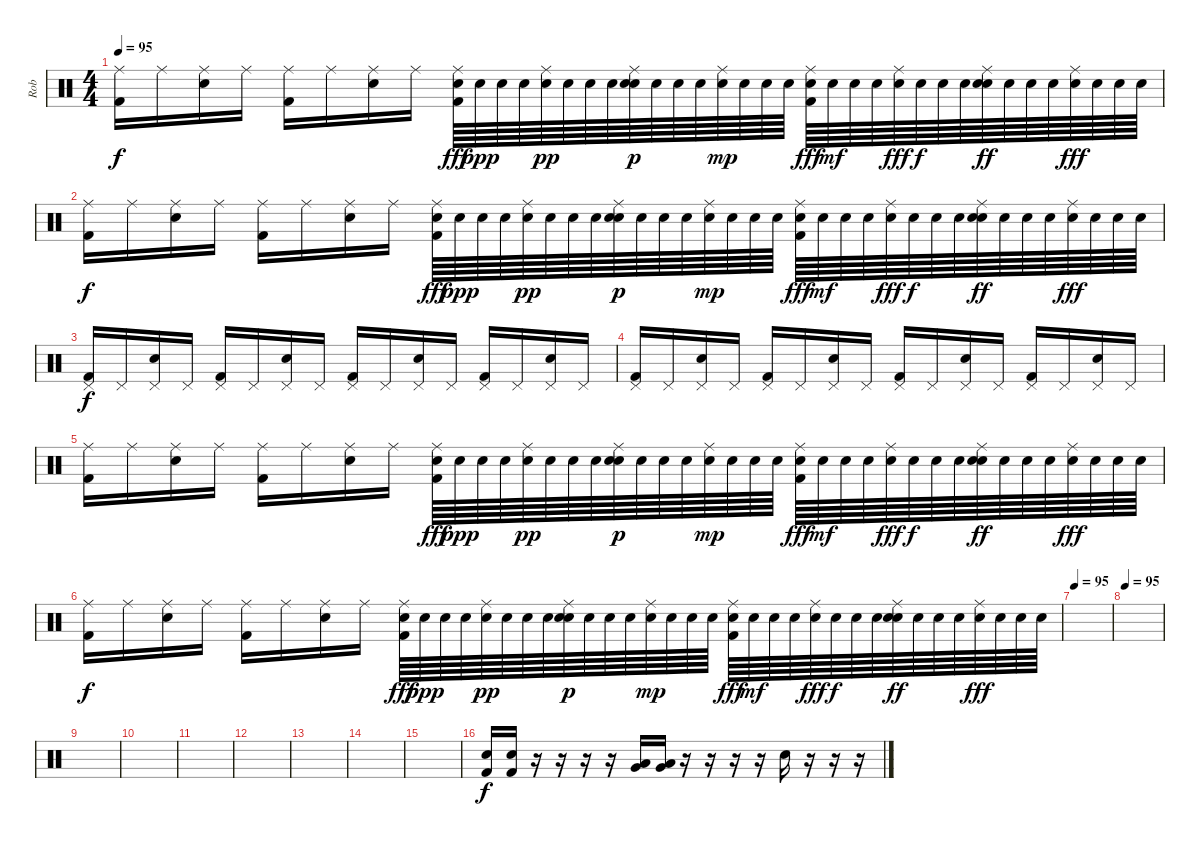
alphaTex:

\track ("Rob" "Rob") {instrument percussion}
\staff {score}
\articulation defaults
\ts (4 4)
\tempo 95
\clef neutral
\ks c
("Ride (middle)" "Kick (hit) 2").16{dy f} "Ride (middle)".16 ("Ride (middle)" "Electric Snare (hit)").16 "Ride (middle)".16 ("Ride (middle)" "Kick (hit) 2").16 "Ride (middle)".16 ("Ride (middle)" "Electric Snare (hit)").16 "Ride (middle)".16 ("Ride (middle)" "Electric Snare (hit)" "Kick (hit) 2").64{dy fff} "Electric Snare (hit)".64{dy ppp} "Electric Snare (hit)".64 "Electric Snare (hit)".64 ("Ride (middle)" "Electric Snare (hit)").64{dy pp} "Electric Snare (hit)".64 "Electric Snare (hit)".64 "Electric Snare (hit)".64 ("Ride (middle)" "Electric Snare (hit)" "Electric Snare (hit)").64{dy p} "Electric Snare (hit)".64 "Electric Snare (hit)".64 "Electric Snare (hit)".64 ("Ride (middle)" "Electric Snare (hit)").64{dy mp} "Electric Snare (hit)".64 "Electric Snare (hit)".64 "Electric Snare (hit)".64 ("Ride (middle)" "Electric Snare (hit)" "Kick (hit) 2").64{dy fff} "Electric Snare (hit)".64{dy mf} "Electric Snare (hit)".64 "Electric Snare (hit)".64 ("Ride (middle)" "Electric Snare (hit)").64{dy fff} "Electric Snare (hit)".64{dy f} "Electric Snare (hit)".64 "Electric Snare (hit)".64 ("Ride (middle)" "Electric Snare (hit)" "Electric Snare (hit)").64{dy ff} "Electric Snare (hit)".64 "Electric Snare (hit)".64 "Electric Snare (hit)".64 ("Ride (middle)" "Electric Snare (hit)").64{dy fff} "Electric Snare (hit)".64 "Electric Snare (hit)".64 "Electric Snare (hit)".64 |
("Ride (middle)" "Kick (hit) 2").16{dy f} "Ride (middle)".16 ("Ride (middle)" "Electric Snare (hit)").16 "Ride (middle)".16 ("Ride (middle)" "Kick (hit) 2").16 "Ride (middle)".16 ("Ride (middle)" "Electric Snare (hit)").16 "Ride (middle)".16 ("Ride (middle)" "Electric Snare (hit)" "Kick (hit) 2").64{dy fff} "Electric Snare (hit)".64{dy ppp} "Electric Snare (hit)".64 "Electric Snare (hit)".64 ("Ride (middle)" "Electric Snare (hit)").64{dy pp} "Electric Snare (hit)".64 "Electric Snare (hit)".64 "Electric Snare (hit)".64 ("Ride (middle)" "Electric Snare (hit)" "Electric Snare (hit)").64{dy p} "Electric Snare (hit)".64 "Electric Snare (hit)".64 "Electric Snare (hit)".64 ("Ride (middle)" "Electric Snare (hit)").64{dy mp} "Electric Snare (hit)".64 "Electric Snare (hit)".64 "Electric Snare (hit)".64 ("Ride (middle)" "Electric Snare (hit)" "Kick (hit) 2").64{dy fff} "Electric Snare (hit)".64{dy mf} "Electric Snare (hit)".64 "Electric Snare (hit)".64 ("Ride (middle)" "Electric Snare (hit)").64{dy fff} "Electric Snare (hit)".64{dy f} "Electric Snare (hit)".64 "Electric Snare (hit)".64 ("Ride (middle)" "Electric Snare (hit)" "Electric Snare (hit)").64{dy ff} "Electric Snare (hit)".64 "Electric Snare (hit)".64 "Electric Snare (hit)".64 ("Ride (middle)" "Electric Snare (hit)").64{dy fff} "Electric Snare (hit)".64 "Electric Snare (hit)".64 "Electric Snare (hit)".64 |
("Pedal Hi-Hat (hit)" "Kick (hit) 2").16{dy f} "Pedal Hi-Hat (hit)".16 ("Pedal Hi-Hat (hit)" "Electric Snare (hit)").16 "Pedal Hi-Hat (hit)".16 ("Pedal Hi-Hat (hit)" "Kick (hit) 2").16 "Pedal Hi-Hat (hit)".16 ("Pedal Hi-Hat (hit)" "Electric Snare (hit)").16 "Pedal Hi-Hat (hit)".16 ("Pedal Hi-Hat (hit)" "Kick (hit) 2").16 "Pedal Hi-Hat (hit)".16 ("Pedal Hi-Hat (hit)" "Electric Snare (hit)").16 "Pedal Hi-Hat (hit)".16 ("Pedal Hi-Hat (hit)" "Kick (hit) 2").16 "Pedal Hi-Hat (hit)".16 ("Pedal Hi-Hat (hit)" "Electric Snare (hit)").16 "Pedal Hi-Hat (hit)".16 |
("Pedal Hi-Hat (hit)" "Kick (hit) 2").16 "Pedal Hi-Hat (hit)".16 ("Pedal Hi-Hat (hit)" "Electric Snare (hit)").16 "Pedal Hi-Hat (hit)".16 ("Pedal Hi-Hat (hit)" "Kick (hit) 2").16 "Pedal Hi-Hat (hit)".16 ("Pedal Hi-Hat (hit)" "Electric Snare (hit)").16 "Pedal Hi-Hat (hit)".16 ("Pedal Hi-Hat (hit)" "Kick (hit) 2").16 "Pedal Hi-Hat (hit)".16 ("Pedal Hi-Hat (hit)" "Electric Snare (hit)").16 "Pedal Hi-Hat (hit)".16 ("Pedal Hi-Hat (hit)" "Kick (hit) 2").16 "Pedal Hi-Hat (hit)".16 ("Pedal Hi-Hat (hit)" "Electric Snare (hit)").16 "Pedal Hi-Hat (hit)".16 |
("Ride (middle)" "Kick (hit) 2").16 "Ride (middle)".16 ("Ride (middle)" "Electric Snare (hit)").16 "Ride (middle)".16 ("Ride (middle)" "Kick (hit) 2").16 "Ride (middle)".16 ("Ride (middle)" "Electric Snare (hit)").16 "Ride (middle)".16 ("Ride (middle)" "Electric Snare (hit)" "Kick (hit) 2").64{dy fff} "Electric Snare (hit)".64{dy ppp} "Electric Snare (hit)".64 "Electric Snare (hit)".64 ("Ride (middle)" "Electric Snare (hit)").64{dy pp} "Electric Snare (hit)".64 "Electric Snare (hit)".64 "Electric Snare (hit)".64 ("Ride (middle)" "Electric Snare (hit)" "Electric Snare (hit)").64{dy p} "Electric Snare (hit)".64 "Electric Snare (hit)".64 "Electric Snare (hit)".64 ("Ride (middle)" "Electric Snare (hit)").64{dy mp} "Electric Snare (hit)".64 "Electric Snare (hit)".64 "Electric Snare (hit)".64 ("Ride (middle)" "Electric Snare (hit)" "Kick (hit) 2").64{dy fff} "Electric Snare (hit)".64{dy mf} "Electric Snare (hit)".64 "Electric Snare (hit)".64 ("Ride (middle)" "Electric Snare (hit)").64{dy fff} "Electric Snare (hit)".64{dy f} "Electric Snare (hit)".64 "Electric Snare (hit)".64 ("Ride (middle)" "Electric Snare (hit)" "Electric Snare (hit)").64{dy ff} "Electric Snare (hit)".64 "Electric Snare (hit)".64 "Electric Snare (hit)".64 ("Ride (middle)" "Electric Snare (hit)").64{dy fff} "Electric Snare (hit)".64 "Electric Snare (hit)".64 "Electric Snare (hit)".64 |
("Ride (middle)" "Kick (hit) 2").16{dy f} "Ride (middle)".16 ("Ride (middle)" "Electric Snare (hit)").16 "Ride (middle)".16 ("Ride (middle)" "Kick (hit) 2").16 "Ride (middle)".16 ("Ride (middle)" "Electric Snare (hit)").16 "Ride (middle)".16 ("Ride (middle)" "Electric Snare (hit)" "Kick (hit) 2").64{dy fff} "Electric Snare (hit)".64{dy ppp} "Electric Snare (hit)".64 "Electric Snare (hit)".64 ("Ride (middle)" "Electric Snare (hit)").64{dy pp} "Electric Snare (hit)".64 "Electric Snare (hit)".64 "Electric Snare (hit)".64 ("Ride (middle)" "Electric Snare (hit)" "Electric Snare (hit)").64{dy p} "Electric Snare (hit)".64 "Electric Snare (hit)".64 "Electric Snare (hit)".64 ("Ride (middle)" "Electric Snare (hit)").64{dy mp} "Electric Snare (hit)".64 "Electric Snare (hit)".64 "Electric Snare (hit)".64 ("Ride (middle)" "Electric Snare (hit)" "Kick (hit) 2").64{dy fff} "Electric Snare (hit)".64{dy mf} "Electric Snare (hit)".64 "Electric Snare (hit)".64 ("Ride (middle)" "Electric Snare (hit)").64{dy fff} "Electric Snare (hit)".64{dy f} "Electric Snare (hit)".64 "Electric Snare (hit)".64 ("Ride (middle)" "Electric Snare (hit)" "Electric Snare (hit)").64{dy ff} "Electric Snare (hit)".64 "Electric Snare (hit)".64 "Electric Snare (hit)".64 ("Ride (middle)" "Electric Snare (hit)").64{dy fff} "Electric Snare (hit)".64 "Electric Snare (hit)".64 "Electric Snare (hit)".64 |
\tempo 95
|
\tempo 95
|
|
|
|
|
|
|
|
("Electric Snare (hit)" "Kick (hit) 2").16{dy f} ("Electric Snare (hit)" "Kick (hit) 2").16 r.16 r.16 r.16 r.16 ("Very Low Tom (hit)" "Low Tom (hit)").16 ("Very Low Tom (hit)" "Low Tom (hit)").16 r.16 r.16 r.16 r.16 "Electric Snare (hit)".16 r.16 r.16 r.16
